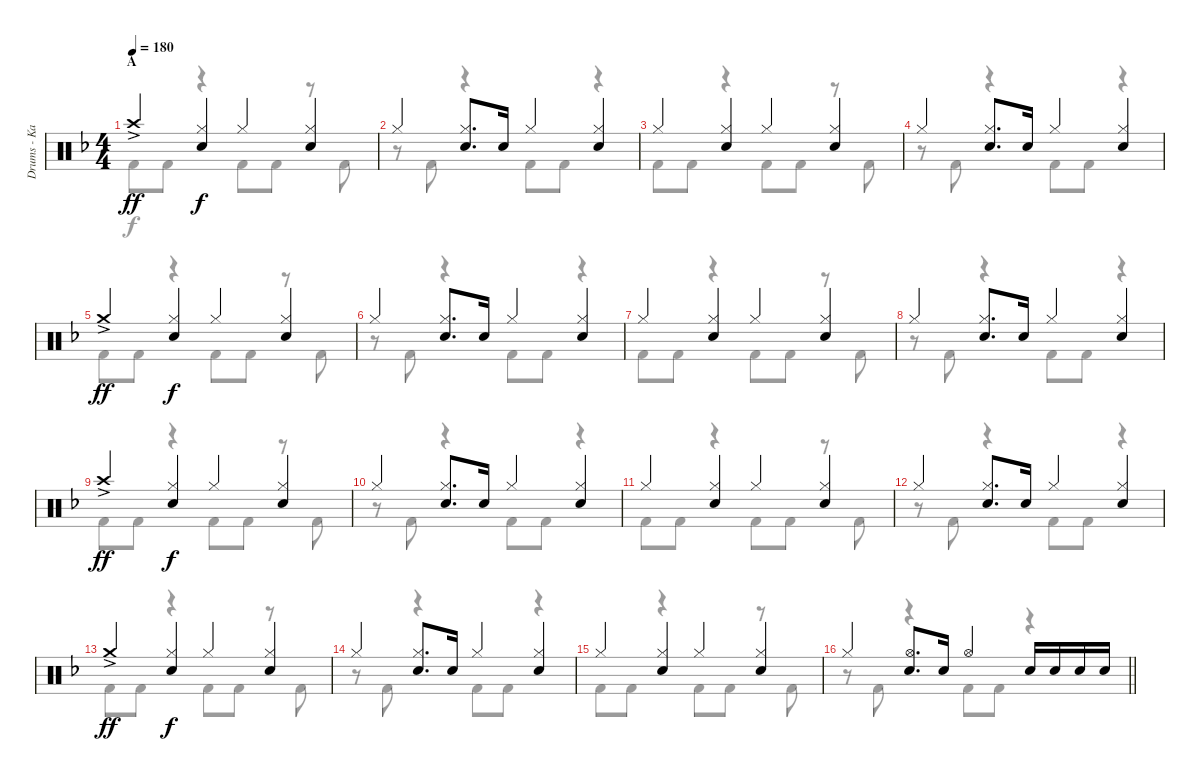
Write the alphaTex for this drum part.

\track ("Drums - Kai" "Drums - Ka") {instrument percussion}
\staff {score}
\articulation defaults
\voice
\ts (4 4)
\section ("" "A")
\tempo 180
\clef neutral
\ks f "Crash high (hit)"{ac}.4{dy ff}
("Hi-Hat (closed)" "Snare (hit) 2").4{dy f} "Hi-Hat (closed)".4 ("Hi-Hat (closed)" "Snare (hit) 2").4 |
"Hi-Hat (closed)".4 ("Hi-Hat (closed)" "Snare (hit) 2").8{d} "Snare (hit) 2".16 "Hi-Hat (closed)".4 ("Hi-Hat (closed)" "Snare (hit) 2").4 |
"Hi-Hat (closed)".4 ("Hi-Hat (closed)" "Snare (hit) 2").4 "Hi-Hat (closed)".4 ("Hi-Hat (closed)" "Snare (hit) 2").4 |
"Hi-Hat (closed)".4 ("Hi-Hat (closed)" "Snare (hit) 2").8{d} "Snare (hit) 2".16 "Hi-Hat (closed)".4 ("Hi-Hat (closed)" "Snare (hit) 2").4 |
"Crash medium (hit)"{ac}.4{dy ff} ("Hi-Hat (closed)" "Snare (hit) 2").4{dy f} "Hi-Hat (closed)".4 ("Hi-Hat (closed)" "Snare (hit) 2").4 |
"Hi-Hat (closed)".4 ("Hi-Hat (closed)" "Snare (hit) 2").8{d} "Snare (hit) 2".16 "Hi-Hat (closed)".4 ("Hi-Hat (closed)" "Snare (hit) 2").4 |
"Hi-Hat (closed)".4 ("Hi-Hat (closed)" "Snare (hit) 2").4 "Hi-Hat (closed)".4 ("Hi-Hat (closed)" "Snare (hit) 2").4 |
"Hi-Hat (closed)".4 ("Hi-Hat (closed)" "Snare (hit) 2").8{d} "Snare (hit) 2".16 "Hi-Hat (closed)".4 ("Hi-Hat (closed)" "Snare (hit) 2").4 |
"Crash high (hit)"{ac}.4{dy ff} ("Hi-Hat (closed)" "Snare (hit) 2").4{dy f} "Hi-Hat (closed)".4 ("Hi-Hat (closed)" "Snare (hit) 2").4 |
"Hi-Hat (closed)".4 ("Hi-Hat (closed)" "Snare (hit) 2").8{d} "Snare (hit) 2".16 "Hi-Hat (closed)".4 ("Hi-Hat (closed)" "Snare (hit) 2").4 |
"Hi-Hat (closed)".4 ("Hi-Hat (closed)" "Snare (hit) 2").4 "Hi-Hat (closed)".4 ("Hi-Hat (closed)" "Snare (hit) 2").4 |
"Hi-Hat (closed)".4 ("Hi-Hat (closed)" "Snare (hit) 2").8{d} "Snare (hit) 2".16 "Hi-Hat (closed)".4 ("Hi-Hat (closed)" "Snare (hit) 2").4 |
"Crash medium (hit)"{ac}.4{dy ff} ("Hi-Hat (closed)" "Snare (hit) 2").4{dy f} "Hi-Hat (closed)".4 ("Hi-Hat (closed)" "Snare (hit) 2").4 |
"Hi-Hat (closed)".4 ("Hi-Hat (closed)" "Snare (hit) 2").8{d} "Snare (hit) 2".16 "Hi-Hat (closed)".4 ("Hi-Hat (closed)" "Snare (hit) 2").4 |
"Hi-Hat (closed)".4 ("Hi-Hat (closed)" "Snare (hit) 2").4 "Hi-Hat (closed)".4 ("Hi-Hat (closed)" "Snare (hit) 2").4 |
\barLineRight lightlight "Hi-Hat (closed)".4
("Hi-Hat (open)" "Snare (hit) 2").8{d} "Snare (hit) 2".16 "Hi-Hat (open)".4 "Snare (hit) 2".16 "Snare (hit) 2".16 "Snare (hit) 2".16 "Snare (hit) 2".16
\voice
\clef neutral
\ottava regular
\simile none
\ks f "Kick (hit) 2".8{dy f} "Kick (hit) 2".8
r.4 "Kick (hit) 2".8 "Kick (hit) 2".8 r.8 "Kick (hit) 2".8 |
r.8 "Kick (hit) 2".8 r.4 "Kick (hit) 2".8 "Kick (hit) 2".8 r.4 |
"Kick (hit) 2".8 "Kick (hit) 2".8 r.4 "Kick (hit) 2".8 "Kick (hit) 2".8 r.8 "Kick (hit) 2".8 |
r.8 "Kick (hit) 2".8 r.4 "Kick (hit) 2".8 "Kick (hit) 2".8 r.4 |
"Kick (hit) 2".8 "Kick (hit) 2".8 r.4 "Kick (hit) 2".8 "Kick (hit) 2".8 r.8 "Kick (hit) 2".8 |
r.8 "Kick (hit) 2".8 r.4 "Kick (hit) 2".8 "Kick (hit) 2".8 r.4 |
"Kick (hit) 2".8 "Kick (hit) 2".8 r.4 "Kick (hit) 2".8 "Kick (hit) 2".8 r.8 "Kick (hit) 2".8 |
r.8 "Kick (hit) 2".8 r.4 "Kick (hit) 2".8 "Kick (hit) 2".8 r.4 |
"Kick (hit) 2".8 "Kick (hit) 2".8 r.4 "Kick (hit) 2".8 "Kick (hit) 2".8 r.8 "Kick (hit) 2".8 |
r.8 "Kick (hit) 2".8 r.4 "Kick (hit) 2".8 "Kick (hit) 2".8 r.4 |
"Kick (hit) 2".8 "Kick (hit) 2".8 r.4 "Kick (hit) 2".8 "Kick (hit) 2".8 r.8 "Kick (hit) 2".8 |
r.8 "Kick (hit) 2".8 r.4 "Kick (hit) 2".8 "Kick (hit) 2".8 r.4 |
"Kick (hit) 2".8 "Kick (hit) 2".8 r.4 "Kick (hit) 2".8 "Kick (hit) 2".8 r.8 "Kick (hit) 2".8 |
r.8 "Kick (hit) 2".8 r.4 "Kick (hit) 2".8 "Kick (hit) 2".8 r.4 |
"Kick (hit) 2".8 "Kick (hit) 2".8 r.4 "Kick (hit) 2".8 "Kick (hit) 2".8 r.8 "Kick (hit) 2".8 |
\barLineRight lightlight
r.8 "Kick (hit) 2".8 r.4 "Kick (hit) 2".8 "Kick (hit) 2".8 r.4
